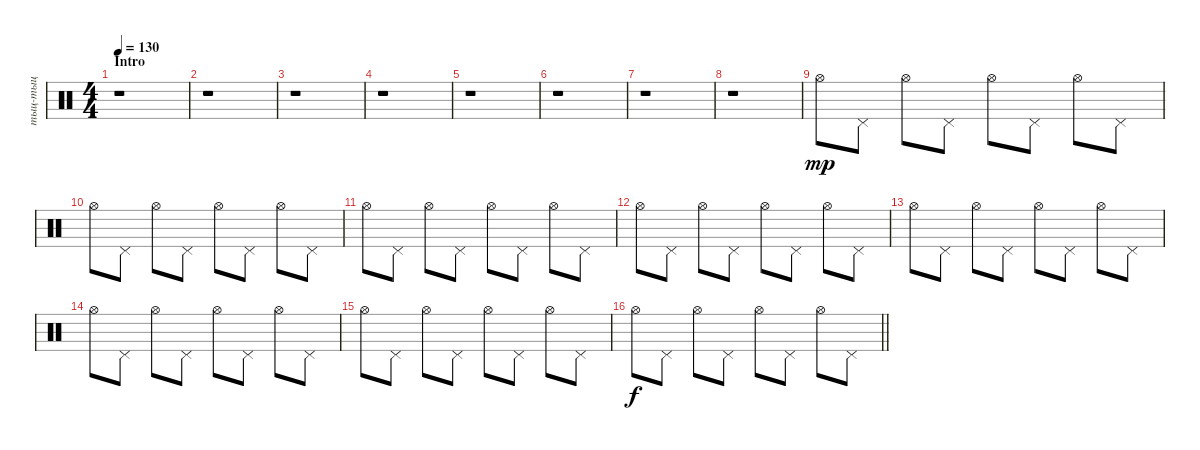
\track ("тыц-тыц" "тыц-тыц") {instrument percussion}
\staff {score}
\articulation defaults
\ts (4 4)
\section ("" "Intro")
\tempo 130
\clef neutral
\ks c
r.1{dy mp} |
r.1 |
r.1 |
r.1 |
r.1 |
r.1 |
r.1 |
r.1 |
"Hi-Hat (open)".8 "Pedal Hi-Hat (hit)".8 "Hi-Hat (open)".8 "Pedal Hi-Hat (hit)".8 "Hi-Hat (open)".8 "Pedal Hi-Hat (hit)".8 "Hi-Hat (open)".8 "Pedal Hi-Hat (hit)".8 |
"Hi-Hat (open)".8 "Pedal Hi-Hat (hit)".8 "Hi-Hat (open)".8 "Pedal Hi-Hat (hit)".8 "Hi-Hat (open)".8 "Pedal Hi-Hat (hit)".8 "Hi-Hat (open)".8 "Pedal Hi-Hat (hit)".8 |
"Hi-Hat (open)".8 "Pedal Hi-Hat (hit)".8 "Hi-Hat (open)".8 "Pedal Hi-Hat (hit)".8 "Hi-Hat (open)".8 "Pedal Hi-Hat (hit)".8 "Hi-Hat (open)".8 "Pedal Hi-Hat (hit)".8 |
"Hi-Hat (open)".8 "Pedal Hi-Hat (hit)".8 "Hi-Hat (open)".8 "Pedal Hi-Hat (hit)".8 "Hi-Hat (open)".8 "Pedal Hi-Hat (hit)".8 "Hi-Hat (open)".8 "Pedal Hi-Hat (hit)".8 |
"Hi-Hat (open)".8 "Pedal Hi-Hat (hit)".8 "Hi-Hat (open)".8 "Pedal Hi-Hat (hit)".8 "Hi-Hat (open)".8 "Pedal Hi-Hat (hit)".8 "Hi-Hat (open)".8 "Pedal Hi-Hat (hit)".8 |
"Hi-Hat (open)".8 "Pedal Hi-Hat (hit)".8 "Hi-Hat (open)".8 "Pedal Hi-Hat (hit)".8 "Hi-Hat (open)".8 "Pedal Hi-Hat (hit)".8 "Hi-Hat (open)".8 "Pedal Hi-Hat (hit)".8 |
"Hi-Hat (open)".8 "Pedal Hi-Hat (hit)".8 "Hi-Hat (open)".8 "Pedal Hi-Hat (hit)".8 "Hi-Hat (open)".8 "Pedal Hi-Hat (hit)".8 "Hi-Hat (open)".8 "Pedal Hi-Hat (hit)".8 |
\barLineRight lightlight "Hi-Hat (open)".8{dy f} "Pedal Hi-Hat (hit)".8 "Hi-Hat (open)".8 "Pedal Hi-Hat (hit)".8 "Hi-Hat (open)".8 "Pedal Hi-Hat (hit)".8 "Hi-Hat (open)".8 "Pedal Hi-Hat (hit)".8
